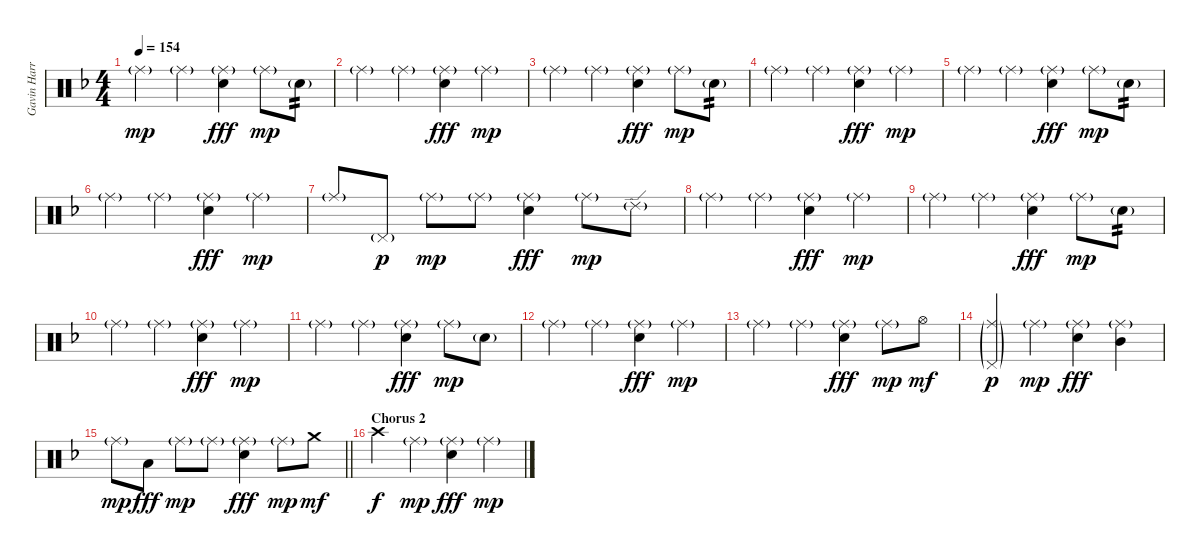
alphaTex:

\track ("Gavin Harrison Drums" "Gavin Harr") {instrument percussion}
\staff {score}
\articulation defaults
\ts (4 4)
\tempo 154
\clef neutral
\ks dminor "Ride (middle)"{g}.4{dy mp} "Ride (middle)"{g}.4
("Ride (middle)"{g} "Electric Snare (hit)").4{dy fff} "Ride (middle)"{g}.8{dy mp} "Electric Snare (hit)"{g}.8{tp 2} |
"Ride (middle)"{g}.4 "Ride (middle)"{g}.4 ("Ride (middle)"{g} "Electric Snare (hit)").4{dy fff} "Ride (middle)"{g}.4{dy mp} |
"Ride (middle)"{g}.4 "Ride (middle)"{g}.4 ("Ride (middle)"{g} "Electric Snare (hit)").4{dy fff} "Ride (middle)"{g}.8{dy mp} "Electric Snare (hit)"{g}.8{tp 2} |
"Ride (middle)"{g}.4 "Ride (middle)"{g}.4 ("Ride (middle)"{g} "Electric Snare (hit)").4{dy fff} "Ride (middle)"{g}.4{dy mp} |
"Ride (middle)"{g}.4 "Ride (middle)"{g}.4 ("Ride (middle)"{g} "Electric Snare (hit)").4{dy fff} "Ride (middle)"{g}.8{dy mp} "Electric Snare (hit)"{g}.8{tp 2} |
"Ride (middle)"{g}.4 "Ride (middle)"{g}.4 ("Ride (middle)"{g} "Electric Snare (hit)").4{dy fff} "Ride (middle)"{g}.4{dy mp} |
"Ride (middle)"{g}.8 "Pedal Hi-Hat (hit)"{g}.8{dy p} "Ride (middle)"{g}.8{dy mp} "Ride (middle)"{g}.8 ("Ride (middle)"{g} "Electric Snare (hit)").4{dy fff} "Ride (middle)"{g}.8{dy mp} "Ride (edge) 2"{g}.8 |
"Ride (middle)"{g}.4 "Ride (middle)"{g}.4 ("Ride (middle)"{g} "Electric Snare (hit)").4{dy fff} "Ride (middle)"{g}.4{dy mp} |
"Ride (middle)"{g}.4 "Ride (middle)"{g}.4 ("Ride (middle)"{g} "Electric Snare (hit)").4{dy fff} "Ride (middle)"{g}.8{dy mp} "Electric Snare (hit)"{g}.8{tp 2} |
"Ride (middle)"{g}.4 "Ride (middle)"{g}.4 ("Ride (middle)"{g} "Electric Snare (hit)").4{dy fff} "Ride (middle)"{g}.4{dy mp} |
"Ride (middle)"{g}.4 "Ride (middle)"{g}.4 ("Ride (middle)"{g} "Electric Snare (hit)").4{dy fff} "Ride (middle)"{g}.8{dy mp} "Electric Snare (hit)"{g}.8 |
"Ride (middle)"{g}.4 "Ride (middle)"{g}.4 ("Ride (middle)"{g} "Electric Snare (hit)").4{dy fff} "Ride (middle)"{g}.4{dy mp} |
"Ride (middle)"{g}.4 "Ride (middle)"{g}.4 ("Ride (middle)"{g} "Electric Snare (hit)").4{dy fff} "Ride (middle)"{g}.8{dy mp} "Hi-Hat (open)".8{dy mf} |
("Ride (middle)"{g} "Pedal Hi-Hat (hit)"{g}).4{dy p} "Ride (middle)"{g}.4{dy mp} ("Ride (middle)"{g} "Electric Snare (hit)").4{dy fff} ("Ride (middle)"{g} "Mid Tom (hit)").4 |
\barLineRight lightlight "Ride (middle)"{g}.8{dy mp} "Low Tom (hit)".8{dy fff} "Ride (middle)"{g}.8{dy mp} "Ride (middle)"{g}.8
("Ride (middle)"{g} "Electric Snare (hit)").4{dy fff} "Ride (middle)"{g}.8{dy mp} "Crash medium (hit)".8{dy mf} |
\section ("" "Chorus 2")
"Crash high (hit)".4{dy f} "Ride (middle)"{g}.4{dy mp} ("Ride (middle)"{g} "Electric Snare (hit)").4{dy fff} "Ride (middle)"{g}.4{dy mp}
